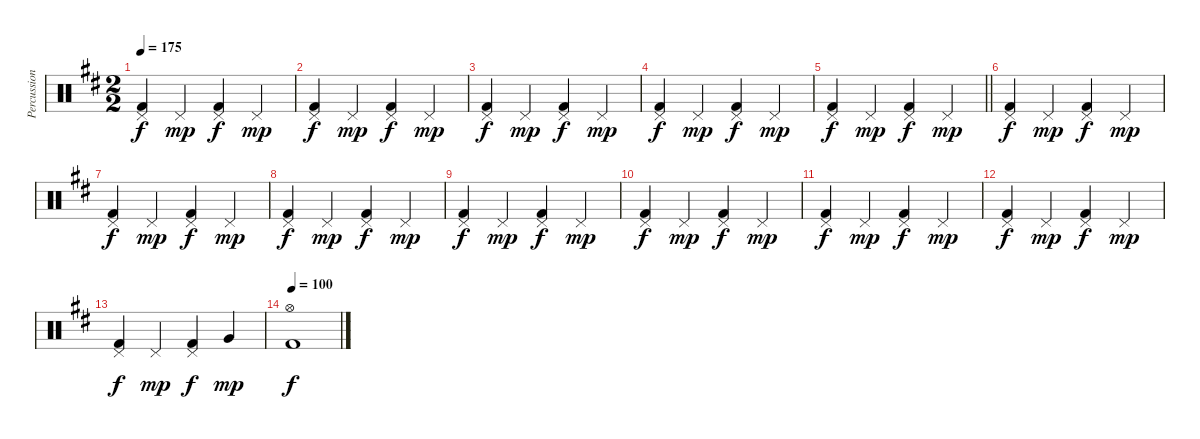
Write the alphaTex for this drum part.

\track ("Percussion" "Percussion") {instrument percussion}
\staff {score}
\articulation defaults
\ts (2 2)
\tempo 175
\clef neutral
\ks d
("Pedal Hi-Hat (hit)" "Kick (hit) 2").4{dy f} "Pedal Hi-Hat (hit)".4{dy mp} ("Pedal Hi-Hat (hit)" "Kick (hit) 2").4{dy f} "Pedal Hi-Hat (hit)".4{dy mp} |
("Pedal Hi-Hat (hit)" "Kick (hit) 2").4{dy f} "Pedal Hi-Hat (hit)".4{dy mp} ("Pedal Hi-Hat (hit)" "Kick (hit) 2").4{dy f} "Pedal Hi-Hat (hit)".4{dy mp} |
("Pedal Hi-Hat (hit)" "Kick (hit) 2").4{dy f} "Pedal Hi-Hat (hit)".4{dy mp} ("Pedal Hi-Hat (hit)" "Kick (hit) 2").4{dy f} "Pedal Hi-Hat (hit)".4{dy mp} |
("Pedal Hi-Hat (hit)" "Kick (hit) 2").4{dy f} "Pedal Hi-Hat (hit)".4{dy mp} ("Pedal Hi-Hat (hit)" "Kick (hit) 2").4{dy f} "Pedal Hi-Hat (hit)".4{dy mp} |
\barLineRight lightlight
("Pedal Hi-Hat (hit)" "Kick (hit) 2").4{dy f} "Pedal Hi-Hat (hit)".4{dy mp} ("Pedal Hi-Hat (hit)" "Kick (hit) 2").4{dy f} "Pedal Hi-Hat (hit)".4{dy mp} |
("Pedal Hi-Hat (hit)" "Kick (hit) 2").4{dy f} "Pedal Hi-Hat (hit)".4{dy mp} ("Pedal Hi-Hat (hit)" "Kick (hit) 2").4{dy f} "Pedal Hi-Hat (hit)".4{dy mp} |
("Pedal Hi-Hat (hit)" "Kick (hit) 2").4{dy f} "Pedal Hi-Hat (hit)".4{dy mp} ("Pedal Hi-Hat (hit)" "Kick (hit) 2").4{dy f} "Pedal Hi-Hat (hit)".4{dy mp} |
("Pedal Hi-Hat (hit)" "Kick (hit) 2").4{dy f} "Pedal Hi-Hat (hit)".4{dy mp} ("Pedal Hi-Hat (hit)" "Kick (hit) 2").4{dy f} "Pedal Hi-Hat (hit)".4{dy mp} |
("Pedal Hi-Hat (hit)" "Kick (hit) 2").4{dy f} "Pedal Hi-Hat (hit)".4{dy mp} ("Pedal Hi-Hat (hit)" "Kick (hit) 2").4{dy f} "Pedal Hi-Hat (hit)".4{dy mp} |
("Pedal Hi-Hat (hit)" "Kick (hit) 2").4{dy f} "Pedal Hi-Hat (hit)".4{dy mp} ("Pedal Hi-Hat (hit)" "Kick (hit) 2").4{dy f} "Pedal Hi-Hat (hit)".4{dy mp} |
("Pedal Hi-Hat (hit)" "Kick (hit) 2").4{dy f} "Pedal Hi-Hat (hit)".4{dy mp} ("Pedal Hi-Hat (hit)" "Kick (hit) 2").4{dy f} "Pedal Hi-Hat (hit)".4{dy mp} |
("Pedal Hi-Hat (hit)" "Kick (hit) 2").4{dy f} "Pedal Hi-Hat (hit)".4{dy mp} ("Pedal Hi-Hat (hit)" "Kick (hit) 2").4{dy f} "Pedal Hi-Hat (hit)".4{dy mp} |
("Pedal Hi-Hat (hit)" "Kick (hit) 2").4{dy f} "Pedal Hi-Hat (hit)".4{dy mp} ("Pedal Hi-Hat (hit)" "Kick (hit) 2").4{dy f} "Very Low Tom (hit)".4{dy mp} |
\tempo 100
("Hi-Hat (open)" "Kick (hit) 2").1{dy f}
